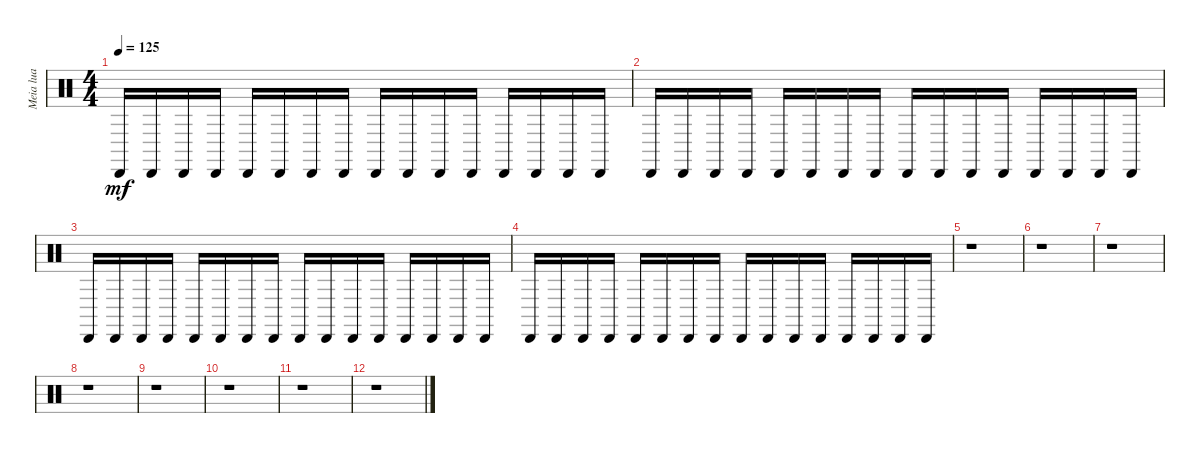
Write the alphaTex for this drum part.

\track ("Meia lua" "Meia lua") {instrument percussion}
\staff {score}
\articulation defaults
\ts (4 4)
\tempo 125
\clef neutral
\ks c "Cabasa (hit)".16{dy mf} "Cabasa (hit)".16 "Cabasa (hit)".16 "Cabasa (hit)".16 "Cabasa (hit)".16 "Cabasa (hit)".16 "Cabasa (hit)".16 "Cabasa (hit)".16 "Cabasa (hit)".16 "Cabasa (hit)".16 "Cabasa (hit)".16 "Cabasa (hit)".16 "Cabasa (hit)".16 "Cabasa (hit)".16 "Cabasa (hit)".16 "Cabasa (hit)".16
|
"Cabasa (hit)".16 "Cabasa (hit)".16 "Cabasa (hit)".16 "Cabasa (hit)".16 "Cabasa (hit)".16 "Cabasa (hit)".16 "Cabasa (hit)".16 "Cabasa (hit)".16 "Cabasa (hit)".16 "Cabasa (hit)".16 "Cabasa (hit)".16 "Cabasa (hit)".16 "Cabasa (hit)".16 "Cabasa (hit)".16 "Cabasa (hit)".16 "Cabasa (hit)".16 |
"Cabasa (hit)".16 "Cabasa (hit)".16 "Cabasa (hit)".16 "Cabasa (hit)".16 "Cabasa (hit)".16 "Cabasa (hit)".16 "Cabasa (hit)".16 "Cabasa (hit)".16 "Cabasa (hit)".16 "Cabasa (hit)".16 "Cabasa (hit)".16 "Cabasa (hit)".16 "Cabasa (hit)".16 "Cabasa (hit)".16 "Cabasa (hit)".16 "Cabasa (hit)".16 |
"Cabasa (hit)".16 "Cabasa (hit)".16 "Cabasa (hit)".16 "Cabasa (hit)".16 "Cabasa (hit)".16 "Cabasa (hit)".16 "Cabasa (hit)".16 "Cabasa (hit)".16 "Cabasa (hit)".16 "Cabasa (hit)".16 "Cabasa (hit)".16 "Cabasa (hit)".16 "Cabasa (hit)".16 "Cabasa (hit)".16 "Cabasa (hit)".16 "Cabasa (hit)".16 |
r.1 |
r.1 |
r.1 |
r.1 |
r.1 |
r.1 |
r.1 |
r.1
